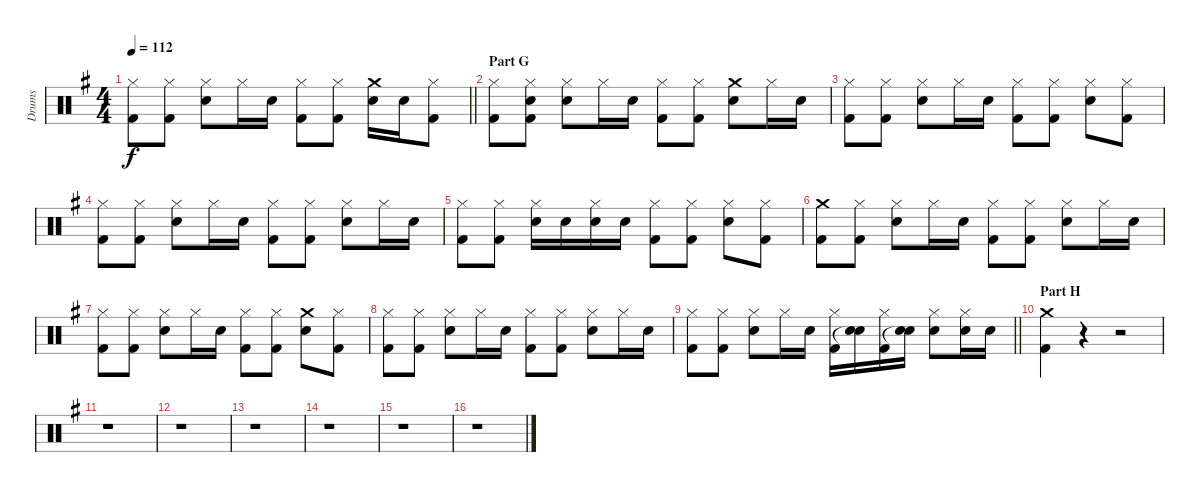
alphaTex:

\track ("Drums" "Drums") {instrument percussion}
\staff {score}
\articulation defaults
\ts (4 4)
\tempo 112
\clef neutral
\barLineRight lightlight
\ks g
("Hi-Hat (closed)" "Kick (hit) 2").8{dy f} ("Hi-Hat (closed)" "Kick (hit) 2").8 ("Hi-Hat (closed)" "Electric Snare (hit)").8 "Hi-Hat (closed)".16 "Electric Snare (hit)".16 ("Hi-Hat (closed)" "Kick (hit) 2").8 ("Hi-Hat (closed)" "Kick (hit) 2").8 ("Crash medium (hit)" "Electric Snare (hit)").16 "Electric Snare (hit)".16 ("Hi-Hat (closed)" "Kick (hit) 2").8 |
\section ("" "Part G")
("Hi-Hat (closed)" "Kick (hit) 2").8 ("Hi-Hat (closed)" "Electric Snare (hit)" "Kick (hit) 2").8 ("Hi-Hat (closed)" "Electric Snare (hit)").8 "Hi-Hat (closed)".16 "Electric Snare (hit)".16 ("Hi-Hat (closed)" "Kick (hit) 2").8 ("Hi-Hat (closed)" "Kick (hit) 2").8 ("Crash medium (hit)" "Electric Snare (hit)").8 "Hi-Hat (closed)".16 "Electric Snare (hit)".16 |
("Hi-Hat (closed)" "Kick (hit) 2").8 ("Hi-Hat (closed)" "Kick (hit) 2").8 ("Hi-Hat (closed)" "Electric Snare (hit)").8 "Hi-Hat (closed)".16 "Electric Snare (hit)".16 ("Hi-Hat (closed)" "Kick (hit) 2").8 ("Hi-Hat (closed)" "Kick (hit) 2").8 ("Hi-Hat (closed)" "Electric Snare (hit)").8 ("Hi-Hat (closed)" "Kick (hit) 2").8 |
("Hi-Hat (closed)" "Kick (hit) 2").8 ("Hi-Hat (closed)" "Kick (hit) 2").8 ("Hi-Hat (closed)" "Electric Snare (hit)").8 "Hi-Hat (closed)".16 "Electric Snare (hit)".16 ("Hi-Hat (closed)" "Kick (hit) 2").8 ("Hi-Hat (closed)" "Kick (hit) 2").8 ("Hi-Hat (closed)" "Electric Snare (hit)").8 "Hi-Hat (closed)".16 "Electric Snare (hit)".16 |
("Hi-Hat (closed)" "Kick (hit) 2").8 ("Hi-Hat (closed)" "Kick (hit) 2").8 ("Hi-Hat (closed)" "Electric Snare (hit)").16 "Electric Snare (hit)".16 ("Hi-Hat (closed)" "Electric Snare (hit)").16 "Electric Snare (hit)".16 ("Hi-Hat (closed)" "Kick (hit) 2").8 ("Hi-Hat (closed)" "Kick (hit) 2").8 ("Hi-Hat (closed)" "Electric Snare (hit)").8 ("Hi-Hat (closed)" "Kick (hit) 2").8 |
("Crash medium (hit)" "Kick (hit) 2").8 ("Hi-Hat (closed)" "Kick (hit) 2").8 ("Hi-Hat (closed)" "Electric Snare (hit)").8 "Hi-Hat (closed)".16 "Electric Snare (hit)".16 ("Hi-Hat (closed)" "Kick (hit) 2").8 ("Hi-Hat (closed)" "Kick (hit) 2").8 ("Hi-Hat (closed)" "Electric Snare (hit)").8 "Hi-Hat (closed)".16 "Electric Snare (hit)".16 |
("Hi-Hat (closed)" "Kick (hit) 2").8 ("Hi-Hat (closed)" "Kick (hit) 2").8 ("Hi-Hat (closed)" "Electric Snare (hit)").8 "Hi-Hat (closed)".16 "Electric Snare (hit)".16 ("Hi-Hat (closed)" "Kick (hit) 2").8 ("Hi-Hat (closed)" "Kick (hit) 2").8 ("Crash medium (hit)" "Electric Snare (hit)").8 ("Hi-Hat (closed)" "Kick (hit) 2").8 |
("Hi-Hat (closed)" "Kick (hit) 2").8 ("Hi-Hat (closed)" "Kick (hit) 2").8 ("Hi-Hat (closed)" "Electric Snare (hit)").8 "Hi-Hat (closed)".16 "Electric Snare (hit)".16 ("Hi-Hat (closed)" "Kick (hit) 2").8 ("Hi-Hat (closed)" "Kick (hit) 2").8 ("Hi-Hat (closed)" "Electric Snare (hit)").8 "Hi-Hat (closed)".16 "Electric Snare (hit)".16 |
\barLineRight lightlight
("Hi-Hat (closed)" "Kick (hit) 2").8 ("Hi-Hat (closed)" "Kick (hit) 2").8 ("Hi-Hat (closed)" "Electric Snare (hit)").8 "Hi-Hat (closed)".16 "Electric Snare (hit)".16 ("Hi-Hat (closed)" "Kick (hit) 2").16 ("Electric Snare (hit)" "Snare (hit)"{t}).16 ("Hi-Hat (closed)" "Kick (hit) 2").16 ("Electric Snare (hit)" "Snare (hit)"{t}).16 ("Hi-Hat (closed)" "Electric Snare (hit)").8 ("Hi-Hat (closed)" "Electric Snare (hit)").16 "Electric Snare (hit)".16 |
\section ("" "Part H")
("Crash medium (hit)" "Kick (hit) 2").4 r.4 r.2 |
r.1 |
r.1 |
r.1 |
r.1 |
r.1 |
r.1
